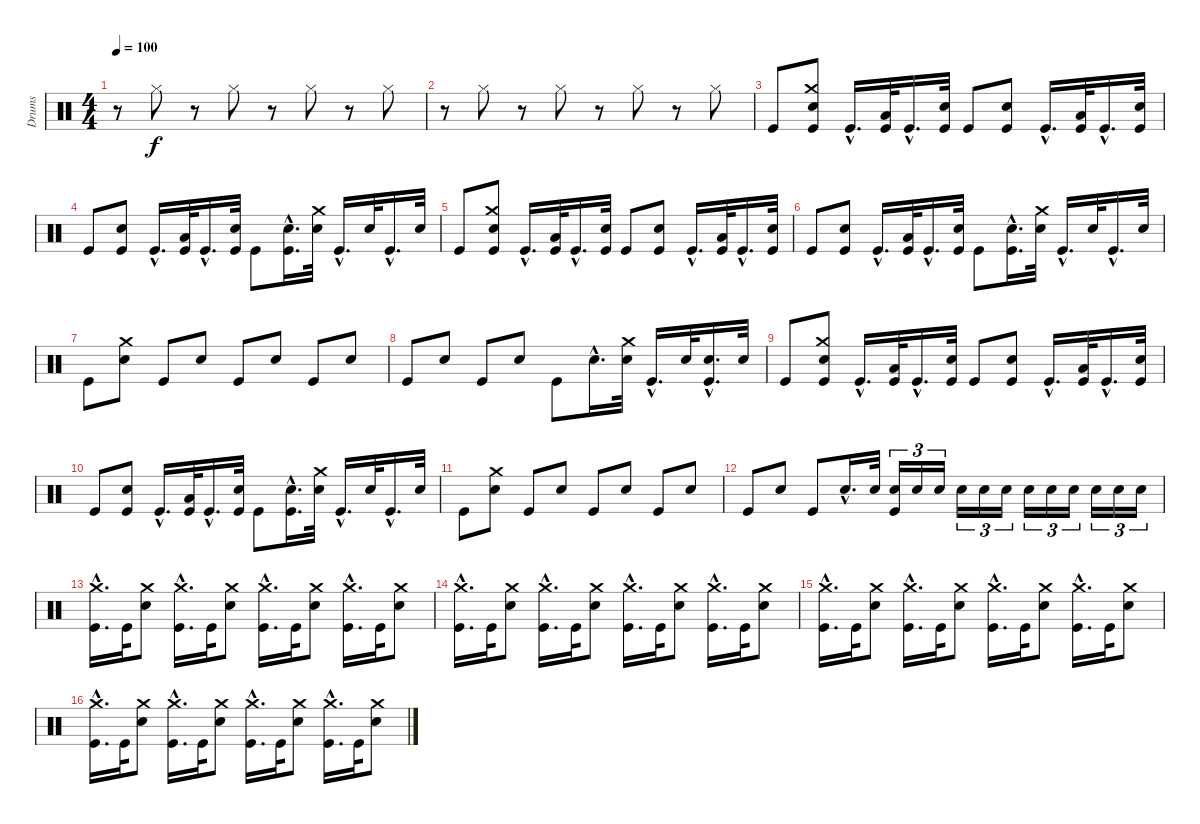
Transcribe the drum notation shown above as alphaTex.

\track ("Drums" "Drums") {instrument percussion}
\staff {score}
\articulation defaults
\ts (4 4)
\tempo 100
\clef neutral
\ks c
r.8{dy f} "Hi-Hat (closed)".8 r.8 "Hi-Hat (closed)".8 r.8 "Hi-Hat (closed)".8 r.8 "Hi-Hat (closed)".8 |
r.8 "Hi-Hat (closed)".8 r.8 "Hi-Hat (closed)".8 r.8 "Hi-Hat (closed)".8 r.8 "Hi-Hat (closed)".8 |
"Kick (hit)".8 ("Crash medium (hit)" "Electric Snare (hit)" "Kick (hit)").8 "Kick (hit)"{hac}.16{d} ("Low Floor Tom (hit)" "Kick (hit)").32 "Kick (hit)"{hac}.16{d} ("Electric Snare (hit)" "Kick (hit)").32 "Kick (hit)".8 ("Electric Snare (hit)" "Kick (hit)").8 "Kick (hit)"{hac}.16{d} ("Low Floor Tom (hit)" "Kick (hit)").32 "Kick (hit)"{hac}.16{d} ("Electric Snare (hit)" "Kick (hit)").32 |
"Kick (hit)".8 ("Electric Snare (hit)" "Kick (hit)").8 "Kick (hit)"{hac}.16{d} ("Low Floor Tom (hit)" "Kick (hit)").32 "Kick (hit)"{hac}.16{d} ("Electric Snare (hit)" "Kick (hit)").32 "Kick (hit)".8 ("Electric Snare (hit)"{hac} "Kick (hit)"{hac}).16{d} ("Crash medium (hit)" "Electric Snare (hit)").32 "Kick (hit)"{hac}.16{d} "Electric Snare (hit)".32 "Kick (hit)"{hac}.16{d} "Electric Snare (hit)".32 |
"Kick (hit)".8 ("Crash medium (hit)" "Electric Snare (hit)" "Kick (hit)").8 "Kick (hit)"{hac}.16{d} ("Low Floor Tom (hit)" "Kick (hit)").32 "Kick (hit)"{hac}.16{d} ("Electric Snare (hit)" "Kick (hit)").32 "Kick (hit)".8 ("Electric Snare (hit)" "Kick (hit)").8 "Kick (hit)"{hac}.16{d} ("Low Floor Tom (hit)" "Kick (hit)").32 "Kick (hit)"{hac}.16{d} ("Electric Snare (hit)" "Kick (hit)").32 |
"Kick (hit)".8 ("Electric Snare (hit)" "Kick (hit)").8 "Kick (hit)"{hac}.16{d} ("Low Floor Tom (hit)" "Kick (hit)").32 "Kick (hit)"{hac}.16{d} ("Electric Snare (hit)" "Kick (hit)").32 "Kick (hit)".8 ("Electric Snare (hit)"{hac} "Kick (hit)"{hac}).16{d} ("Crash medium (hit)" "Electric Snare (hit)").32 "Kick (hit)"{hac}.16{d} "Electric Snare (hit)".32 "Kick (hit)"{hac}.16{d} "Electric Snare (hit)".32 |
"Kick (hit)".8 ("Crash medium (hit)" "Electric Snare (hit)").8 "Kick (hit)".8 "Electric Snare (hit)".8 "Kick (hit)".8 "Electric Snare (hit)".8 "Kick (hit)".8 "Electric Snare (hit)".8 |
"Kick (hit)".8 "Electric Snare (hit)".8 "Kick (hit)".8 "Electric Snare (hit)".8 "Kick (hit)".8 "Electric Snare (hit)"{hac}.16{d} ("Crash medium (hit)" "Electric Snare (hit)").32 "Kick (hit)"{hac}.16{d} "Electric Snare (hit)".32 ("Electric Snare (hit)"{hac} "Kick (hit)"{hac}).16{d} "Electric Snare (hit)".32 |
"Kick (hit)".8 ("Crash medium (hit)" "Electric Snare (hit)" "Kick (hit)").8 "Kick (hit)"{hac}.16{d} ("Low Floor Tom (hit)" "Kick (hit)").32 "Kick (hit)"{hac}.16{d} ("Electric Snare (hit)" "Kick (hit)").32 "Kick (hit)".8 ("Electric Snare (hit)" "Kick (hit)").8 "Kick (hit)"{hac}.16{d} ("Low Floor Tom (hit)" "Kick (hit)").32 "Kick (hit)"{hac}.16{d} ("Electric Snare (hit)" "Kick (hit)").32 |
"Kick (hit)".8 ("Electric Snare (hit)" "Kick (hit)").8 "Kick (hit)"{hac}.16{d} ("Low Floor Tom (hit)" "Kick (hit)").32 "Kick (hit)"{hac}.16{d} ("Electric Snare (hit)" "Kick (hit)").32 "Kick (hit)".8 ("Electric Snare (hit)"{hac} "Kick (hit)"{hac}).16{d} ("Crash medium (hit)" "Electric Snare (hit)").32 "Kick (hit)"{hac}.16{d} "Electric Snare (hit)".32 "Kick (hit)"{hac}.16{d} "Electric Snare (hit)".32 |
"Kick (hit)".8 ("Crash medium (hit)" "Electric Snare (hit)").8 "Kick (hit)".8 "Electric Snare (hit)".8 "Kick (hit)".8 "Electric Snare (hit)".8 "Kick (hit)".8 "Electric Snare (hit)".8 |
"Kick (hit)".8 "Electric Snare (hit)".8 "Kick (hit)".8 "Electric Snare (hit)"{hac}.16{d} "Electric Snare (hit)".32 ("Electric Snare (hit)" "Kick (hit)").16{tu (3 2)} "Electric Snare (hit)".16{tu (3 2)} "Electric Snare (hit)".16{tu (3 2)} "Electric Snare (hit)".16{tu (3 2)} "Electric Snare (hit)".16{tu (3 2)} "Electric Snare (hit)".16{tu (3 2)} "Electric Snare (hit)".16{tu (3 2)} "Electric Snare (hit)".16{tu (3 2)} "Electric Snare (hit)".16{tu (3 2)} "Electric Snare (hit)".16{tu (3 2)} "Electric Snare (hit)".16{tu (3 2)} "Electric Snare (hit)".16{tu (3 2)} |
("Crash medium (hit)"{hac} "Kick (hit)"{hac}).16{d} "Kick (hit)".32 ("Crash medium (hit)" "Electric Snare (hit)").8 ("Crash medium (hit)"{hac} "Kick (hit)"{hac}).16{d} "Kick (hit)".32 ("Crash medium (hit)" "Electric Snare (hit)").8 ("Crash medium (hit)"{hac} "Kick (hit)"{hac}).16{d} "Kick (hit)".32 ("Crash medium (hit)" "Electric Snare (hit)").8 ("Crash medium (hit)"{hac} "Kick (hit)"{hac}).16{d} "Kick (hit)".32 ("Crash medium (hit)" "Electric Snare (hit)").8 |
("Crash medium (hit)"{hac} "Kick (hit)"{hac}).16{d} "Kick (hit)".32 ("Crash medium (hit)" "Electric Snare (hit)").8 ("Crash medium (hit)"{hac} "Kick (hit)"{hac}).16{d} "Kick (hit)".32 ("Crash medium (hit)" "Electric Snare (hit)").8 ("Crash medium (hit)"{hac} "Kick (hit)"{hac}).16{d} "Kick (hit)".32 ("Crash medium (hit)" "Electric Snare (hit)").8 ("Crash medium (hit)"{hac} "Kick (hit)"{hac}).16{d} "Kick (hit)".32 ("Crash medium (hit)" "Electric Snare (hit)").8 |
("Crash medium (hit)"{hac} "Kick (hit)"{hac}).16{d} "Kick (hit)".32 ("Crash medium (hit)" "Electric Snare (hit)").8 ("Crash medium (hit)"{hac} "Kick (hit)"{hac}).16{d} "Kick (hit)".32 ("Crash medium (hit)" "Electric Snare (hit)").8 ("Crash medium (hit)"{hac} "Kick (hit)"{hac}).16{d} "Kick (hit)".32 ("Crash medium (hit)" "Electric Snare (hit)").8 ("Crash medium (hit)"{hac} "Kick (hit)"{hac}).16{d} "Kick (hit)".32 ("Crash medium (hit)" "Electric Snare (hit)").8 |
("Crash medium (hit)"{hac} "Kick (hit)"{hac}).16{d} "Kick (hit)".32 ("Crash medium (hit)" "Electric Snare (hit)").8 ("Crash medium (hit)"{hac} "Kick (hit)"{hac}).16{d} "Kick (hit)".32 ("Crash medium (hit)" "Electric Snare (hit)").8 ("Crash medium (hit)"{hac} "Kick (hit)"{hac}).16{d} "Kick (hit)".32 ("Crash medium (hit)" "Electric Snare (hit)").8 ("Crash medium (hit)"{hac} "Kick (hit)"{hac}).16{d} "Kick (hit)".32 ("Crash medium (hit)" "Electric Snare (hit)").8
